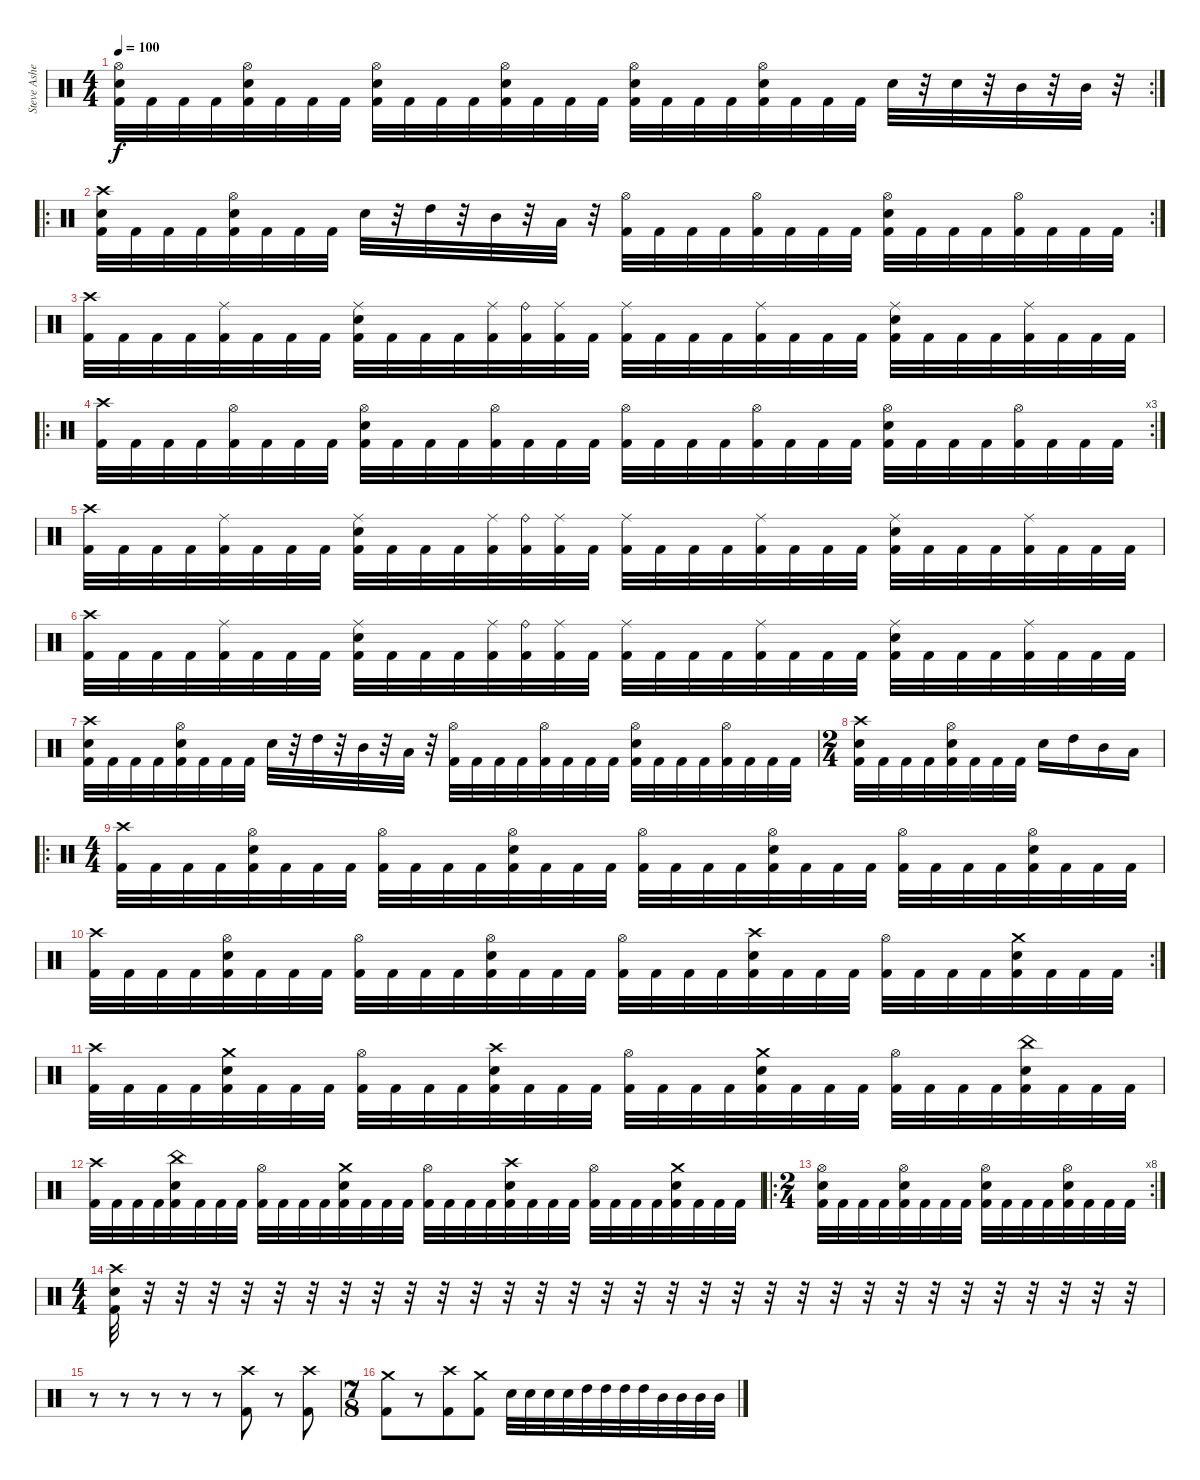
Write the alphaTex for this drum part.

\track ("Steve Asheim" "Steve Ashe") {instrument percussion}
\staff {score}
\articulation defaults
\rc 2
\ts (4 4)
\tempo 100
\clef neutral
\ks c
("Hi-Hat (open)" "Electric Snare (hit)" "Kick (hit) 2").32{dy f} "Kick (hit) 2".32 "Kick (hit) 2".32 "Kick (hit) 2".32 ("Hi-Hat (open)" "Electric Snare (hit)" "Kick (hit) 2").32 "Kick (hit) 2".32 "Kick (hit) 2".32 "Kick (hit) 2".32 ("Hi-Hat (open)" "Electric Snare (hit)" "Kick (hit) 2").32 "Kick (hit) 2".32 "Kick (hit) 2".32 "Kick (hit) 2".32 ("Hi-Hat (open)" "Electric Snare (hit)" "Kick (hit) 2").32 "Kick (hit) 2".32 "Kick (hit) 2".32 "Kick (hit) 2".32 ("Hi-Hat (open)" "Electric Snare (hit)" "Kick (hit) 2").32 "Kick (hit) 2".32 "Kick (hit) 2".32 "Kick (hit) 2".32 ("Hi-Hat (open)" "Electric Snare (hit)" "Kick (hit) 2").32 "Kick (hit) 2".32 "Kick (hit) 2".32 "Kick (hit) 2".32 "Electric Snare (hit)".32 r.32 "Electric Snare (hit)".32 r.32 "Mid Tom (hit)".32 r.32 "Mid Tom (hit)".32 r.32 |
\ro
\rc 2
("Crash high (hit)" "Electric Snare (hit)" "Kick (hit) 2").32 "Kick (hit) 2".32 "Kick (hit) 2".32 "Kick (hit) 2".32 ("Hi-Hat (open)" "Electric Snare (hit)" "Kick (hit) 2").32 "Kick (hit) 2".32 "Kick (hit) 2".32 "Kick (hit) 2".32 "Electric Snare (hit)".32 r.32 "High Tom (hit)".32 r.32 "Mid Tom (hit)".32 r.32 "Low Tom (hit)".32 r.32 ("Hi-Hat (open)" "Kick (hit) 2").32 "Kick (hit) 2".32 "Kick (hit) 2".32 "Kick (hit) 2".32 ("Hi-Hat (open)" "Kick (hit) 2").32 "Kick (hit) 2".32 "Kick (hit) 2".32 "Kick (hit) 2".32 ("Hi-Hat (open)" "Electric Snare (hit)" "Kick (hit) 2").32 "Kick (hit) 2".32 "Kick (hit) 2".32 "Kick (hit) 2".32 ("Hi-Hat (open)" "Kick (hit) 2").32 "Kick (hit) 2".32 "Kick (hit) 2".32 "Kick (hit) 2".32 |
("Crash high (hit)" "Kick (hit) 2").32 "Kick (hit) 2".32 "Kick (hit) 2".32 "Kick (hit) 2".32 ("Ride (middle)" "Kick (hit) 2").32 "Kick (hit) 2".32 "Kick (hit) 2".32 "Kick (hit) 2".32 ("Ride (middle)" "Electric Snare (hit)" "Kick (hit) 2").32 "Kick (hit) 2".32 "Kick (hit) 2".32 "Kick (hit) 2".32 ("Ride (middle)" "Kick (hit) 2").32 ("Ride (bell)" "Kick (hit) 2").32 ("Ride (middle)" "Kick (hit) 2").32 "Kick (hit) 2".32 ("Ride (middle)" "Kick (hit) 2").32 "Kick (hit) 2".32 "Kick (hit) 2".32 "Kick (hit) 2".32 ("Ride (middle)" "Kick (hit) 2").32 "Kick (hit) 2".32 "Kick (hit) 2".32 "Kick (hit) 2".32 ("Ride (middle)" "Electric Snare (hit)" "Kick (hit) 2").32 "Kick (hit) 2".32 "Kick (hit) 2".32 "Kick (hit) 2".32 ("Ride (middle)" "Kick (hit) 2").32 "Kick (hit) 2".32 "Kick (hit) 2".32 "Kick (hit) 2".32 |
\ro
\rc 3
("Crash high (hit)" "Kick (hit) 2").32 "Kick (hit) 2".32 "Kick (hit) 2".32 "Kick (hit) 2".32 ("Hi-Hat (open)" "Kick (hit) 2").32 "Kick (hit) 2".32 "Kick (hit) 2".32 "Kick (hit) 2".32 ("Hi-Hat (open)" "Electric Snare (hit)" "Kick (hit) 2").32 "Kick (hit) 2".32 "Kick (hit) 2".32 "Kick (hit) 2".32 ("Hi-Hat (open)" "Kick (hit) 2").32 "Kick (hit) 2".32 "Kick (hit) 2".32 "Kick (hit) 2".32 ("Hi-Hat (open)" "Kick (hit) 2").32 "Kick (hit) 2".32 "Kick (hit) 2".32 "Kick (hit) 2".32 ("Hi-Hat (open)" "Kick (hit) 2").32 "Kick (hit) 2".32 "Kick (hit) 2".32 "Kick (hit) 2".32 ("Hi-Hat (open)" "Electric Snare (hit)" "Kick (hit) 2").32 "Kick (hit) 2".32 "Kick (hit) 2".32 "Kick (hit) 2".32 ("Hi-Hat (open)" "Kick (hit) 2").32 "Kick (hit) 2".32 "Kick (hit) 2".32 "Kick (hit) 2".32 |
("Crash high (hit)" "Kick (hit) 2").32 "Kick (hit) 2".32 "Kick (hit) 2".32 "Kick (hit) 2".32 ("Ride (middle)" "Kick (hit) 2").32 "Kick (hit) 2".32 "Kick (hit) 2".32 "Kick (hit) 2".32 ("Ride (middle)" "Electric Snare (hit)" "Kick (hit) 2").32 "Kick (hit) 2".32 "Kick (hit) 2".32 "Kick (hit) 2".32 ("Ride (middle)" "Kick (hit) 2").32 ("Ride (bell)" "Kick (hit) 2").32 ("Ride (middle)" "Kick (hit) 2").32 "Kick (hit) 2".32 ("Ride (middle)" "Kick (hit) 2").32 "Kick (hit) 2".32 "Kick (hit) 2".32 "Kick (hit) 2".32 ("Ride (middle)" "Kick (hit) 2").32 "Kick (hit) 2".32 "Kick (hit) 2".32 "Kick (hit) 2".32 ("Ride (middle)" "Electric Snare (hit)" "Kick (hit) 2").32 "Kick (hit) 2".32 "Kick (hit) 2".32 "Kick (hit) 2".32 ("Ride (middle)" "Kick (hit) 2").32 "Kick (hit) 2".32 "Kick (hit) 2".32 "Kick (hit) 2".32 |
("Crash high (hit)" "Kick (hit) 2").32 "Kick (hit) 2".32 "Kick (hit) 2".32 "Kick (hit) 2".32 ("Ride (middle)" "Kick (hit) 2").32 "Kick (hit) 2".32 "Kick (hit) 2".32 "Kick (hit) 2".32 ("Ride (middle)" "Electric Snare (hit)" "Kick (hit) 2").32 "Kick (hit) 2".32 "Kick (hit) 2".32 "Kick (hit) 2".32 ("Ride (middle)" "Kick (hit) 2").32 ("Ride (bell)" "Kick (hit) 2").32 ("Ride (middle)" "Kick (hit) 2").32 "Kick (hit) 2".32 ("Ride (middle)" "Kick (hit) 2").32 "Kick (hit) 2".32 "Kick (hit) 2".32 "Kick (hit) 2".32 ("Ride (middle)" "Kick (hit) 2").32 "Kick (hit) 2".32 "Kick (hit) 2".32 "Kick (hit) 2".32 ("Ride (middle)" "Electric Snare (hit)" "Kick (hit) 2").32 "Kick (hit) 2".32 "Kick (hit) 2".32 "Kick (hit) 2".32 ("Ride (middle)" "Kick (hit) 2").32 "Kick (hit) 2".32 "Kick (hit) 2".32 "Kick (hit) 2".32 |
("Crash high (hit)" "Electric Snare (hit)" "Kick (hit) 2").32 "Kick (hit) 2".32 "Kick (hit) 2".32 "Kick (hit) 2".32 ("Hi-Hat (open)" "Electric Snare (hit)" "Kick (hit) 2").32 "Kick (hit) 2".32 "Kick (hit) 2".32 "Kick (hit) 2".32 "Electric Snare (hit)".32 r.32 "High Tom (hit)".32 r.32 "Mid Tom (hit)".32 r.32 "Low Tom (hit)".32 r.32 ("Hi-Hat (open)" "Kick (hit) 2").32 "Kick (hit) 2".32 "Kick (hit) 2".32 "Kick (hit) 2".32 ("Hi-Hat (open)" "Kick (hit) 2").32 "Kick (hit) 2".32 "Kick (hit) 2".32 "Kick (hit) 2".32 ("Hi-Hat (open)" "Electric Snare (hit)" "Kick (hit) 2").32 "Kick (hit) 2".32 "Kick (hit) 2".32 "Kick (hit) 2".32 ("Hi-Hat (open)" "Kick (hit) 2").32 "Kick (hit) 2".32 "Kick (hit) 2".32 "Kick (hit) 2".32 |
\ts (2 4)
("Crash high (hit)" "Electric Snare (hit)" "Kick (hit) 2").32 "Kick (hit) 2".32 "Kick (hit) 2".32 "Kick (hit) 2".32 ("Hi-Hat (open)" "Electric Snare (hit)" "Kick (hit) 2").32 "Kick (hit) 2".32 "Kick (hit) 2".32 "Kick (hit) 2".32 "Electric Snare (hit)".16 "High Tom (hit)".16 "Mid Tom (hit)".16 "Low Tom (hit)".16 |
\ro
\ts (4 4)
("Crash high (hit)" "Kick (hit) 2").32 "Kick (hit) 2".32 "Kick (hit) 2".32 "Kick (hit) 2".32 ("Hi-Hat (open)" "Electric Snare (hit)" "Kick (hit) 2").32 "Kick (hit) 2".32 "Kick (hit) 2".32 "Kick (hit) 2".32 ("Hi-Hat (open)" "Kick (hit) 2").32 "Kick (hit) 2".32 "Kick (hit) 2".32 "Kick (hit) 2".32 ("Hi-Hat (open)" "Electric Snare (hit)" "Kick (hit) 2").32 "Kick (hit) 2".32 "Kick (hit) 2".32 "Kick (hit) 2".32 ("Hi-Hat (open)" "Kick (hit) 2").32 "Kick (hit) 2".32 "Kick (hit) 2".32 "Kick (hit) 2".32 ("Hi-Hat (open)" "Electric Snare (hit)" "Kick (hit) 2").32 "Kick (hit) 2".32 "Kick (hit) 2".32 "Kick (hit) 2".32 ("Hi-Hat (open)" "Kick (hit) 2").32 "Kick (hit) 2".32 "Kick (hit) 2".32 "Kick (hit) 2".32 ("Hi-Hat (open)" "Electric Snare (hit)" "Kick (hit) 2").32 "Kick (hit) 2".32 "Kick (hit) 2".32 "Kick (hit) 2".32 |
\rc 2
("Crash high (hit)" "Kick (hit) 2").32 "Kick (hit) 2".32 "Kick (hit) 2".32 "Kick (hit) 2".32 ("Hi-Hat (open)" "Electric Snare (hit)" "Kick (hit) 2").32 "Kick (hit) 2".32 "Kick (hit) 2".32 "Kick (hit) 2".32 ("Hi-Hat (open)" "Kick (hit) 2").32 "Kick (hit) 2".32 "Kick (hit) 2".32 "Kick (hit) 2".32 ("Hi-Hat (open)" "Electric Snare (hit)" "Kick (hit) 2").32 "Kick (hit) 2".32 "Kick (hit) 2".32 "Kick (hit) 2".32 ("Hi-Hat (open)" "Kick (hit) 2").32 "Kick (hit) 2".32 "Kick (hit) 2".32 "Kick (hit) 2".32 ("Crash high (hit)" "Electric Snare (hit)" "Kick (hit) 2").32 "Kick (hit) 2".32 "Kick (hit) 2".32 "Kick (hit) 2".32 ("Hi-Hat (open)" "Kick (hit) 2").32 "Kick (hit) 2".32 "Kick (hit) 2".32 "Kick (hit) 2".32 ("Crash medium (hit)" "Electric Snare (hit)" "Kick (hit) 2").32 "Kick (hit) 2".32 "Kick (hit) 2".32 "Kick (hit) 2".32 |
("Crash high (hit)" "Kick (hit) 2").32 "Kick (hit) 2".32 "Kick (hit) 2".32 "Kick (hit) 2".32 ("Crash medium (hit)" "Electric Snare (hit)" "Kick (hit) 2").32 "Kick (hit) 2".32 "Kick (hit) 2".32 "Kick (hit) 2".32 ("Hi-Hat (open)" "Kick (hit) 2").32 "Kick (hit) 2".32 "Kick (hit) 2".32 "Kick (hit) 2".32 ("Crash high (hit)" "Electric Snare (hit)" "Kick (hit) 2").32 "Kick (hit) 2".32 "Kick (hit) 2".32 "Kick (hit) 2".32 ("Hi-Hat (open)" "Kick (hit) 2").32 "Kick (hit) 2".32 "Kick (hit) 2".32 "Kick (hit) 2".32 ("Crash medium (hit)" "Electric Snare (hit)" "Kick (hit) 2").32 "Kick (hit) 2".32 "Kick (hit) 2".32 "Kick (hit) 2".32 ("Hi-Hat (open)" "Kick (hit) 2").32 "Kick (hit) 2".32 "Kick (hit) 2".32 "Kick (hit) 2".32 ("China (hit)" "Electric Snare (hit)" "Kick (hit) 2").32 "Kick (hit) 2".32 "Kick (hit) 2".32 "Kick (hit) 2".32 |
("Crash high (hit)" "Kick (hit) 2").32 "Kick (hit) 2".32 "Kick (hit) 2".32 "Kick (hit) 2".32 ("China (hit)" "Electric Snare (hit)" "Kick (hit) 2").32 "Kick (hit) 2".32 "Kick (hit) 2".32 "Kick (hit) 2".32 ("Hi-Hat (open)" "Kick (hit) 2").32 "Kick (hit) 2".32 "Kick (hit) 2".32 "Kick (hit) 2".32 ("Crash medium (hit)" "Electric Snare (hit)" "Kick (hit) 2").32 "Kick (hit) 2".32 "Kick (hit) 2".32 "Kick (hit) 2".32 ("Hi-Hat (open)" "Kick (hit) 2").32 "Kick (hit) 2".32 "Kick (hit) 2".32 "Kick (hit) 2".32 ("Crash high (hit)" "Electric Snare (hit)" "Kick (hit) 2").32 "Kick (hit) 2".32 "Kick (hit) 2".32 "Kick (hit) 2".32 ("Hi-Hat (open)" "Kick (hit) 2").32 "Kick (hit) 2".32 "Kick (hit) 2".32 "Kick (hit) 2".32 ("Crash medium (hit)" "Electric Snare (hit)" "Kick (hit) 2").32 "Kick (hit) 2".32 "Kick (hit) 2".32 "Kick (hit) 2".32 |
\ro
\rc 8
\ts (2 4)
("Hi-Hat (open)" "Electric Snare (hit)" "Kick (hit) 2").32 "Kick (hit) 2".32 "Kick (hit) 2".32 "Kick (hit) 2".32 ("Hi-Hat (open)" "Electric Snare (hit)" "Kick (hit) 2").32 "Kick (hit) 2".32 "Kick (hit) 2".32 "Kick (hit) 2".32 ("Hi-Hat (open)" "Electric Snare (hit)" "Kick (hit) 2").32 "Kick (hit) 2".32 "Kick (hit) 2".32 "Kick (hit) 2".32 ("Hi-Hat (open)" "Electric Snare (hit)" "Kick (hit) 2").32 "Kick (hit) 2".32 "Kick (hit) 2".32 "Kick (hit) 2".32 |
\ts (4 4)
("Crash high (hit)" "Electric Snare (hit)" "Kick (hit) 2").32 r.32 r.32 r.32 r.32 r.32 r.32 r.32 r.32 r.32 r.32 r.32 r.32 r.32 r.32 r.32 r.32 r.32 r.32 r.32 r.32 r.32 r.32 r.32 r.32 r.32 r.32 r.32 r.32 r.32 r.32 r.32 |
r.8 r.8 r.8 r.8 r.8 ("Crash high (hit)" "Kick (hit) 2").8 r.8 ("Crash high (hit)" "Kick (hit) 2").8 |
\ts (7 8)
("Crash medium (hit)" "Kick (hit) 2").8 r.8 ("Crash high (hit)" "Kick (hit) 2").8 ("Crash medium (hit)" "Kick (hit) 2").8 "Electric Snare (hit)".32 "Electric Snare (hit)".32 "Electric Snare (hit)".32 "Electric Snare (hit)".32 "High Tom (hit)".32 "High Tom (hit)".32 "High Tom (hit)".32 "High Tom (hit)".32 "Mid Tom (hit)".32 "Mid Tom (hit)".32 "Mid Tom (hit)".32 "Mid Tom (hit)".32
